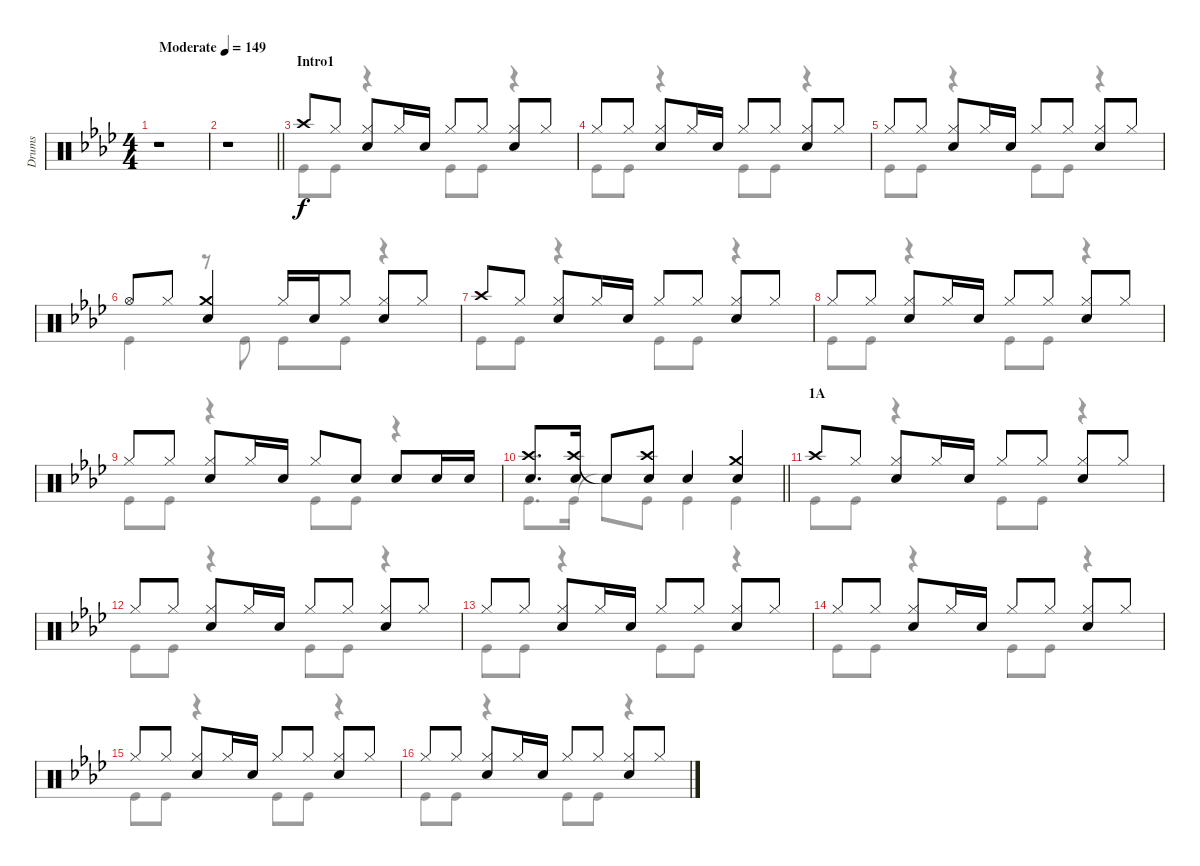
\track ("Drums" "Drums") {instrument percussion}
\staff {score}
\articulation defaults
\voice
\ts (4 4)
\tempo (149 "Moderate")
\clef neutral
\ks ab
r.1{dy f} |
\barLineRight lightlight
r.1 |
\section ("" "Intro1")
"Crash high (hit)".8 "Hi-Hat (closed)".8 ("Hi-Hat (closed)" "Snare (hit) 2").8 "Hi-Hat (closed)".16 "Snare (hit) 2".16 "Hi-Hat (closed)".8 "Hi-Hat (closed)".8 ("Hi-Hat (closed)" "Snare (hit) 2").8 "Hi-Hat (closed)".8 |
"Hi-Hat (closed)".8 "Hi-Hat (closed)".8 ("Hi-Hat (closed)" "Snare (hit) 2").8 "Hi-Hat (closed)".16 "Snare (hit) 2".16 "Hi-Hat (closed)".8 "Hi-Hat (closed)".8 ("Hi-Hat (closed)" "Snare (hit) 2").8 "Hi-Hat (closed)".8 |
"Hi-Hat (closed)".8 "Hi-Hat (closed)".8 ("Hi-Hat (closed)" "Snare (hit) 2").8 "Hi-Hat (closed)".16 "Snare (hit) 2".16 "Hi-Hat (closed)".8 "Hi-Hat (closed)".8 ("Hi-Hat (closed)" "Snare (hit) 2").8 "Hi-Hat (closed)".8 |
"Hi-Hat (open)".8 "Hi-Hat (closed)".8 ("Crash medium (hit)" "Snare (hit) 2").4 "Hi-Hat (closed)".16 "Snare (hit) 2".16 "Hi-Hat (closed)".8 ("Hi-Hat (closed)" "Snare (hit) 2").8 "Hi-Hat (closed)".8 |
"Crash high (hit)".8 "Hi-Hat (closed)".8 ("Hi-Hat (closed)" "Snare (hit) 2").8 "Hi-Hat (closed)".16 "Snare (hit) 2".16 "Hi-Hat (closed)".8 "Hi-Hat (closed)".8 ("Hi-Hat (closed)" "Snare (hit) 2").8 "Hi-Hat (closed)".8 |
"Hi-Hat (closed)".8 "Hi-Hat (closed)".8 ("Hi-Hat (closed)" "Snare (hit) 2").8 "Hi-Hat (closed)".16 "Snare (hit) 2".16 "Hi-Hat (closed)".8 "Hi-Hat (closed)".8 ("Hi-Hat (closed)" "Snare (hit) 2").8 "Hi-Hat (closed)".8 |
"Hi-Hat (closed)".8 "Hi-Hat (closed)".8 ("Hi-Hat (closed)" "Snare (hit) 2").8 "Hi-Hat (closed)".16 "Snare (hit) 2".16 "Hi-Hat (closed)".8 "Snare (hit) 2".8 "Snare (hit) 2".8 "Snare (hit) 2".16 "Snare (hit) 2".16 |
\barLineRight lightlight
("Crash high (hit)" "Snare (hit) 2").8{d} ("Crash high (hit)" "Snare (hit) 2").16 "Snare (hit)"{t}.8 ("Crash high (hit)" "Snare (hit) 2").8 "Snare (hit) 2".4 ("Crash medium (hit)" "Snare (hit) 2").4 |
\section ("" "1A")
"Crash high (hit)".8 "Hi-Hat (closed)".8 ("Hi-Hat (closed)" "Snare (hit) 2").8 "Hi-Hat (closed)".16 "Snare (hit) 2".16 "Hi-Hat (closed)".8 "Hi-Hat (closed)".8 ("Hi-Hat (closed)" "Snare (hit) 2").8 "Hi-Hat (closed)".8 |
"Hi-Hat (closed)".8 "Hi-Hat (closed)".8 ("Hi-Hat (closed)" "Snare (hit) 2").8 "Hi-Hat (closed)".16 "Snare (hit) 2".16 "Hi-Hat (closed)".8 "Hi-Hat (closed)".8 ("Hi-Hat (closed)" "Snare (hit) 2").8 "Hi-Hat (closed)".8 |
"Hi-Hat (closed)".8 "Hi-Hat (closed)".8 ("Hi-Hat (closed)" "Snare (hit) 2").8 "Hi-Hat (closed)".16 "Snare (hit) 2".16 "Hi-Hat (closed)".8 "Hi-Hat (closed)".8 ("Hi-Hat (closed)" "Snare (hit) 2").8 "Hi-Hat (closed)".8 |
"Hi-Hat (closed)".8 "Hi-Hat (closed)".8 ("Hi-Hat (closed)" "Snare (hit) 2").8 "Hi-Hat (closed)".16 "Snare (hit) 2".16 "Hi-Hat (closed)".8 "Hi-Hat (closed)".8 ("Hi-Hat (closed)" "Snare (hit) 2").8 "Hi-Hat (closed)".8 |
"Hi-Hat (closed)".8 "Hi-Hat (closed)".8 ("Hi-Hat (closed)" "Snare (hit) 2").8 "Hi-Hat (closed)".16 "Snare (hit) 2".16 "Hi-Hat (closed)".8 "Hi-Hat (closed)".8 ("Hi-Hat (closed)" "Snare (hit) 2").8 "Hi-Hat (closed)".8 |
"Hi-Hat (closed)".8 "Hi-Hat (closed)".8 ("Hi-Hat (closed)" "Snare (hit) 2").8 "Hi-Hat (closed)".16 "Snare (hit) 2".16 "Hi-Hat (closed)".8 "Hi-Hat (closed)".8 ("Hi-Hat (closed)" "Snare (hit) 2").8 "Hi-Hat (closed)".8
\voice
\clef neutral
\ottava regular
\simile none
\ks ab
r.1{dy f} |
\barLineRight lightlight
r.1 |
"Kick (hit)".8 "Kick (hit)".8 r.4 "Kick (hit)".8 "Kick (hit)".8 r.4 |
"Kick (hit)".8 "Kick (hit)".8 r.4 "Kick (hit)".8 "Kick (hit)".8 r.4 |
"Kick (hit)".8 "Kick (hit)".8 r.4 "Kick (hit)".8 "Kick (hit)".8 r.4 |
"Kick (hit)".4 r.8 "Kick (hit)".8 "Kick (hit)".8 "Kick (hit)".8 r.4 |
"Kick (hit)".8 "Kick (hit)".8 r.4 "Kick (hit)".8 "Kick (hit)".8 r.4 |
"Kick (hit)".8 "Kick (hit)".8 r.4 "Kick (hit)".8 "Kick (hit)".8 r.4 |
"Kick (hit)".8 "Kick (hit)".8 r.4 "Kick (hit)".8 "Kick (hit)".8 r.4 |
\barLineRight lightlight "Kick (hit)".8{d} "Kick (hit)".16 "Snare (hit)"{t}.8 "Kick (hit)".8 "Kick (hit)".4 "Kick (hit)".4
|
"Kick (hit)".8 "Kick (hit)".8 r.4 "Kick (hit)".8 "Kick (hit)".8 r.4 |
"Kick (hit)".8 "Kick (hit)".8 r.4 "Kick (hit)".8 "Kick (hit)".8 r.4 |
"Kick (hit)".8 "Kick (hit)".8 r.4 "Kick (hit)".8 "Kick (hit)".8 r.4 |
"Kick (hit)".8 "Kick (hit)".8 r.4 "Kick (hit)".8 "Kick (hit)".8 r.4 |
"Kick (hit)".8 "Kick (hit)".8 r.4 "Kick (hit)".8 "Kick (hit)".8 r.4 |
"Kick (hit)".8 "Kick (hit)".8 r.4 "Kick (hit)".8 "Kick (hit)".8 r.4
